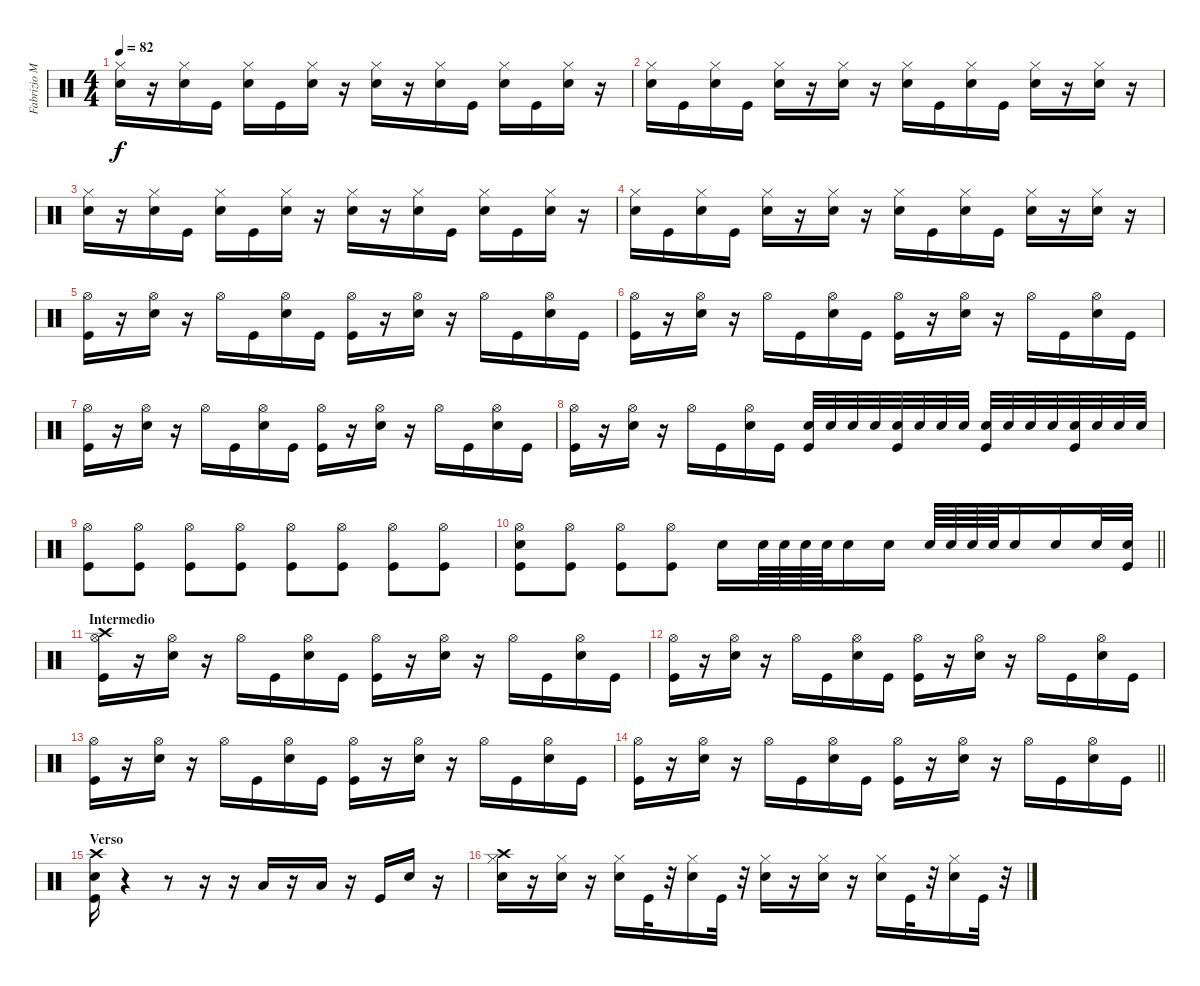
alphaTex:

\track ("Fabrizio Moretti" "Fabrizio M") {instrument percussion}
\staff {score}
\articulation defaults
\ts (4 4)
\tempo 82
\clef neutral
\ks c
("Snare (hit) 2" "Hi-Hat (closed)").16{dy f} r.16 ("Snare (hit) 2" "Hi-Hat (closed)").16 "Kick (hit)".16 ("Snare (hit) 2" "Hi-Hat (closed)").16 "Kick (hit)".16 ("Snare (hit) 2" "Hi-Hat (closed)").16 r.16 ("Snare (hit) 2" "Hi-Hat (closed)").16 r.16 ("Snare (hit) 2" "Hi-Hat (closed)").16 "Kick (hit)".16 ("Snare (hit) 2" "Hi-Hat (closed)").16 "Kick (hit)".16 ("Snare (hit) 2" "Hi-Hat (closed)").16 r.16 |
("Snare (hit) 2" "Hi-Hat (closed)").16 "Kick (hit)".16 ("Snare (hit) 2" "Hi-Hat (closed)").16 "Kick (hit)".16 ("Snare (hit) 2" "Hi-Hat (closed)").16 r.16 ("Snare (hit) 2" "Hi-Hat (closed)").16 r.16 ("Snare (hit) 2" "Hi-Hat (closed)").16 "Kick (hit)".16 ("Snare (hit) 2" "Hi-Hat (closed)").16 "Kick (hit)".16 ("Snare (hit) 2" "Hi-Hat (closed)").16 r.16 ("Snare (hit) 2" "Hi-Hat (closed)").16 r.16 |
("Snare (hit) 2" "Hi-Hat (closed)").16 r.16 ("Snare (hit) 2" "Hi-Hat (closed)").16 "Kick (hit)".16 ("Snare (hit) 2" "Hi-Hat (closed)").16 "Kick (hit)".16 ("Snare (hit) 2" "Hi-Hat (closed)").16 r.16 ("Snare (hit) 2" "Hi-Hat (closed)").16 r.16 ("Snare (hit) 2" "Hi-Hat (closed)").16 "Kick (hit)".16 ("Snare (hit) 2" "Hi-Hat (closed)").16 "Kick (hit)".16 ("Snare (hit) 2" "Hi-Hat (closed)").16 r.16 |
("Snare (hit) 2" "Hi-Hat (closed)").16 "Kick (hit)".16 ("Snare (hit) 2" "Hi-Hat (closed)").16 "Kick (hit)".16 ("Snare (hit) 2" "Hi-Hat (closed)").16 r.16 ("Snare (hit) 2" "Hi-Hat (closed)").16 r.16 ("Snare (hit) 2" "Hi-Hat (closed)").16 "Kick (hit)".16 ("Snare (hit) 2" "Hi-Hat (closed)").16 "Kick (hit)".16 ("Snare (hit) 2" "Hi-Hat (closed)").16 r.16 ("Snare (hit) 2" "Hi-Hat (closed)").16 r.16 |
("Hi-Hat (open)" "Kick (hit)").16 r.16 ("Hi-Hat (open)" "Snare (hit) 2").16 r.16 "Hi-Hat (open)".16 "Kick (hit)".16 ("Hi-Hat (open)" "Snare (hit) 2").16 "Kick (hit)".16 ("Hi-Hat (open)" "Kick (hit)").16 r.16 ("Hi-Hat (open)" "Snare (hit) 2").16 r.16 "Hi-Hat (open)".16 "Kick (hit)".16 ("Hi-Hat (open)" "Snare (hit) 2").16 "Kick (hit)".16 |
("Hi-Hat (open)" "Kick (hit)").16 r.16 ("Hi-Hat (open)" "Snare (hit) 2").16 r.16 "Hi-Hat (open)".16 "Kick (hit)".16 ("Hi-Hat (open)" "Snare (hit) 2").16 "Kick (hit)".16 ("Hi-Hat (open)" "Kick (hit)").16 r.16 ("Hi-Hat (open)" "Snare (hit) 2").16 r.16 "Hi-Hat (open)".16 "Kick (hit)".16 ("Hi-Hat (open)" "Snare (hit) 2").16 "Kick (hit)".16 |
("Hi-Hat (open)" "Kick (hit)").16 r.16 ("Hi-Hat (open)" "Snare (hit) 2").16 r.16 "Hi-Hat (open)".16 "Kick (hit)".16 ("Hi-Hat (open)" "Snare (hit) 2").16 "Kick (hit)".16 ("Hi-Hat (open)" "Kick (hit)").16 r.16 ("Hi-Hat (open)" "Snare (hit) 2").16 r.16 "Hi-Hat (open)".16 "Kick (hit)".16 ("Hi-Hat (open)" "Snare (hit) 2").16 "Kick (hit)".16 |
("Hi-Hat (open)" "Kick (hit)").16 r.16 ("Hi-Hat (open)" "Snare (hit) 2").16 r.16 "Hi-Hat (open)".16 "Kick (hit)".16 ("Hi-Hat (open)" "Snare (hit) 2").16 "Kick (hit)".16 ("Kick (hit)" "Snare (hit) 2").32 "Snare (hit) 2".32 "Snare (hit) 2".32 "Snare (hit) 2".32 ("Kick (hit)" "Snare (hit) 2").32 "Snare (hit) 2".32 "Snare (hit) 2".32 "Snare (hit) 2".32 ("Kick (hit)" "Snare (hit) 2").32 "Snare (hit) 2".32 "Snare (hit) 2".32 "Snare (hit) 2".32 ("Kick (hit)" "Snare (hit) 2").32 "Snare (hit) 2".32 "Snare (hit) 2".32 "Snare (hit) 2".32 |
("Hi-Hat (open)" "Kick (hit)").8 ("Hi-Hat (open)" "Kick (hit)").8 ("Hi-Hat (open)" "Kick (hit)").8 ("Hi-Hat (open)" "Kick (hit)").8 ("Hi-Hat (open)" "Kick (hit)").8 ("Hi-Hat (open)" "Kick (hit)").8 ("Hi-Hat (open)" "Kick (hit)").8 ("Hi-Hat (open)" "Kick (hit)").8 |
\barLineRight lightlight
("Hi-Hat (open)" "Snare (hit) 2" "Kick (hit)").8 ("Hi-Hat (open)" "Kick (hit)").8 ("Hi-Hat (open)" "Kick (hit)").8 ("Hi-Hat (open)" "Kick (hit)").8 "Snare (hit) 2".16 "Snare (hit) 2".64 "Snare (hit) 2".64 "Snare (hit) 2".64 "Snare (hit) 2".64 "Snare (hit) 2".16 "Snare (hit) 2".16 "Snare (hit) 2".64 "Snare (hit) 2".64 "Snare (hit) 2".64 "Snare (hit) 2".64 "Snare (hit) 2".16 "Snare (hit) 2".16 "Snare (hit) 2".32 ("Kick (hit)" "Snare (hit) 2").32 |
\section ("" "Intermedio")
("Hi-Hat (open)" "Kick (hit)" "Crash high (hit)").16 r.16 ("Hi-Hat (open)" "Snare (hit) 2").16 r.16 "Hi-Hat (open)".16 "Kick (hit)".16 ("Hi-Hat (open)" "Snare (hit) 2").16 "Kick (hit)".16 ("Hi-Hat (open)" "Kick (hit)").16 r.16 ("Hi-Hat (open)" "Snare (hit) 2").16 r.16 "Hi-Hat (open)".16 "Kick (hit)".16 ("Hi-Hat (open)" "Snare (hit) 2").16 "Kick (hit)".16 |
("Hi-Hat (open)" "Kick (hit)").16 r.16 ("Hi-Hat (open)" "Snare (hit) 2").16 r.16 "Hi-Hat (open)".16 "Kick (hit)".16 ("Hi-Hat (open)" "Snare (hit) 2").16 "Kick (hit)".16 ("Hi-Hat (open)" "Kick (hit)").16 r.16 ("Hi-Hat (open)" "Snare (hit) 2").16 r.16 "Hi-Hat (open)".16 "Kick (hit)".16 ("Hi-Hat (open)" "Snare (hit) 2").16 "Kick (hit)".16 |
("Hi-Hat (open)" "Kick (hit)").16 r.16 ("Hi-Hat (open)" "Snare (hit) 2").16 r.16 "Hi-Hat (open)".16 "Kick (hit)".16 ("Hi-Hat (open)" "Snare (hit) 2").16 "Kick (hit)".16 ("Hi-Hat (open)" "Kick (hit)").16 r.16 ("Hi-Hat (open)" "Snare (hit) 2").16 r.16 "Hi-Hat (open)".16 "Kick (hit)".16 ("Hi-Hat (open)" "Snare (hit) 2").16 "Kick (hit)".16 |
\barLineRight lightlight
("Hi-Hat (open)" "Kick (hit)").16 r.16 ("Hi-Hat (open)" "Snare (hit) 2").16 r.16 "Hi-Hat (open)".16 "Kick (hit)".16 ("Hi-Hat (open)" "Snare (hit) 2").16 "Kick (hit)".16 ("Hi-Hat (open)" "Kick (hit)").16 r.16 ("Hi-Hat (open)" "Snare (hit) 2").16 r.16 "Hi-Hat (open)".16 "Kick (hit)".16 ("Hi-Hat (open)" "Snare (hit) 2").16 "Kick (hit)".16 |
\section ("" "Verso")
("Snare (hit) 2" "Kick (hit)" "Crash high (hit)").16 r.4 r.8 r.16 r.16 "Low Tom (hit)".16 r.16 "Low Floor Tom (hit)".16 r.16 "Kick (hit)".16 "Snare (hit) 2".16 r.16 |
("Snare (hit) 2" "Crash high (hit)" "Hi-Hat (closed)").16 r.16 ("Snare (hit) 2" "Hi-Hat (closed)").16 r.16 ("Snare (hit) 2" "Hi-Hat (closed)").16 "Kick (hit)".32 r.32 ("Snare (hit) 2" "Hi-Hat (closed)").16 "Kick (hit)".32 r.32 ("Snare (hit) 2" "Hi-Hat (closed)").16 r.16 ("Snare (hit) 2" "Hi-Hat (closed)").16 r.16 ("Snare (hit) 2" "Hi-Hat (closed)").16 "Kick (hit)".32 r.32 ("Snare (hit) 2" "Hi-Hat (closed)").16 "Kick (hit)".32 r.32
